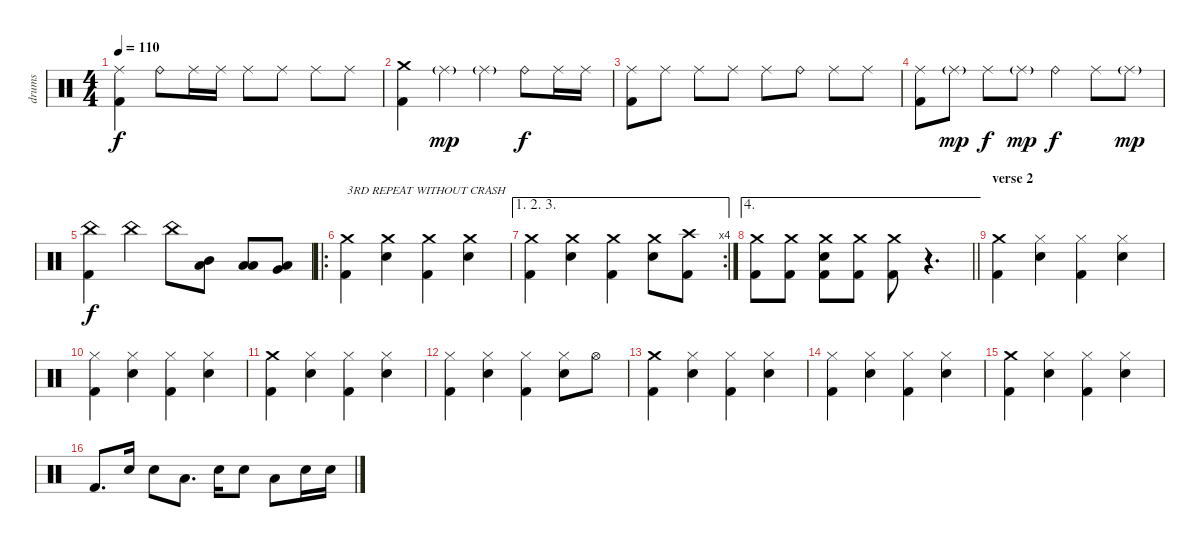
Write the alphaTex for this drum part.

\track ("drums" "drums") {instrument percussion}
\staff {score}
\articulation defaults
\ts (4 4)
\tempo 110
\clef neutral
\ks c
("Ride (middle)" "Kick (hit) 2").4{dy f} "Ride (bell)".8 "Ride (middle)".16 "Ride (middle)".16 "Ride (middle)".8 "Ride (middle)".8 "Ride (middle)".8 "Ride (middle)".8 |
("Crash medium (hit)" "Kick (hit) 2").4 "Ride (middle)"{g}.4{dy mp} "Ride (middle)"{g}.4 "Ride (bell)".8{dy f} "Ride (middle)".16 "Ride (middle)".16 |
("Ride (middle)" "Kick (hit) 2").8 "Ride (middle)".8 "Ride (middle)".8 "Ride (middle)".8 "Ride (middle)".8 "Ride (bell)".8 "Ride (middle)".8 "Ride (middle)".8 |
("Ride (middle)" "Kick (hit) 2").8 "Ride (middle)"{g}.8{dy mp} "Ride (middle)".8{dy f} "Ride (middle)"{g}.8{dy mp} "Ride (bell)".4{dy f} "Ride (middle)".8 "Ride (middle)"{g}.8{dy mp} |
("China (hit)" "Kick (hit) 2").4{dy f} "China (hit)".4 "China (hit)".8 ("Mid Tom (hit)" "Low Floor Tom (hit)").8 ("Low Tom (hit)" "Low Floor Tom (hit)").8 ("Very Low Tom (hit)" "Low Floor Tom (hit)").8 |
\ro
("Crash medium (hit)" "Kick (hit) 2").4{txt "3RD REPEAT WITHOUT CRASH"} ("Crash medium (hit)" "Electric Snare (hit)").4 ("Crash medium (hit)" "Kick (hit) 2").4 ("Crash medium (hit)" "Electric Snare (hit)").4 |
\ae (1 2 3)
\rc 4
("Crash medium (hit)" "Kick (hit) 2").4 ("Crash medium (hit)" "Electric Snare (hit)").4 ("Crash medium (hit)" "Kick (hit) 2").4 ("Crash medium (hit)" "Electric Snare (hit)").8 ("Crash high (hit)" "Kick (hit) 2").8 |
\ae 4
\barLineRight lightlight
("Crash medium (hit)" "Kick (hit) 2").8 ("Crash medium (hit)" "Kick (hit) 2").8 ("Crash medium (hit)" "Electric Snare (hit)" "Kick (hit) 2").8 ("Crash medium (hit)" "Kick (hit) 2").8 ("Crash medium (hit)" "Kick (hit) 2").8 r.4{d} |
\section ("" "verse 2")
("Crash medium (hit)" "Kick (hit) 2").4 ("Hi-Hat (closed)" "Electric Snare (hit)").4 ("Hi-Hat (closed)" "Kick (hit) 2").4 ("Hi-Hat (closed)" "Electric Snare (hit)").4 |
("Hi-Hat (closed)" "Kick (hit) 2").4 ("Hi-Hat (closed)" "Electric Snare (hit)").4 ("Hi-Hat (closed)" "Kick (hit) 2").4 ("Hi-Hat (closed)" "Electric Snare (hit)").4 |
("Crash medium (hit)" "Kick (hit) 2").4 ("Hi-Hat (closed)" "Electric Snare (hit)").4 ("Hi-Hat (closed)" "Kick (hit) 2").4 ("Hi-Hat (closed)" "Electric Snare (hit)").4 |
("Hi-Hat (closed)" "Kick (hit) 2").4 ("Hi-Hat (closed)" "Electric Snare (hit)").4 ("Hi-Hat (closed)" "Kick (hit) 2").4 ("Hi-Hat (closed)" "Electric Snare (hit)").8 "Hi-Hat (open)".8 |
("Crash medium (hit)" "Kick (hit) 2").4 ("Hi-Hat (closed)" "Electric Snare (hit)").4 ("Hi-Hat (closed)" "Kick (hit) 2").4 ("Hi-Hat (closed)" "Electric Snare (hit)").4 |
("Hi-Hat (closed)" "Kick (hit) 2").4 ("Hi-Hat (closed)" "Electric Snare (hit)").4 ("Hi-Hat (closed)" "Kick (hit) 2").4 ("Hi-Hat (closed)" "Electric Snare (hit)").4 |
("Crash medium (hit)" "Kick (hit) 2").4 ("Hi-Hat (closed)" "Electric Snare (hit)").4 ("Hi-Hat (closed)" "Kick (hit) 2").4 ("Hi-Hat (closed)" "Electric Snare (hit)").4 |
"Kick (hit) 2".8{d} "Electric Snare (hit)".16 "Electric Snare (hit)".8 "Low Tom (hit)".8{d} "Electric Snare (hit)".16 "Electric Snare (hit)".8 "Low Tom (hit)".8 "Electric Snare (hit)".16 "Electric Snare (hit)".16
